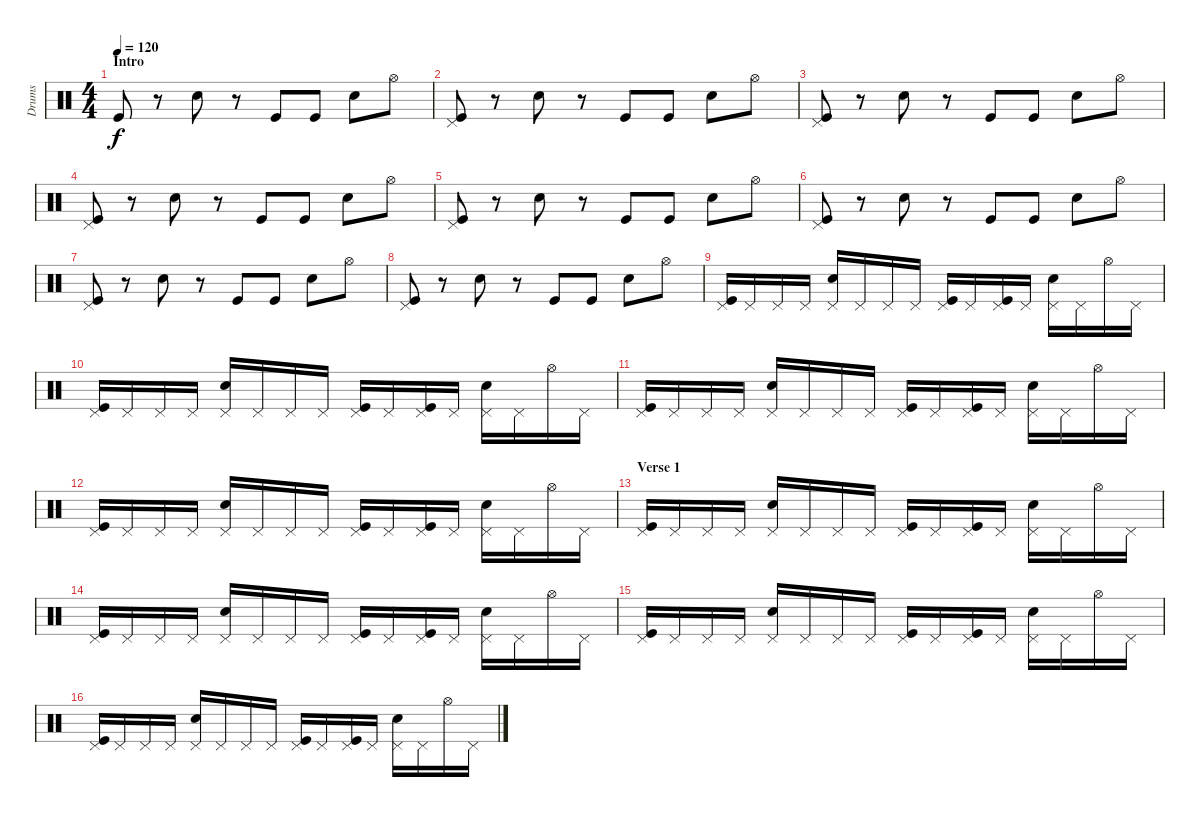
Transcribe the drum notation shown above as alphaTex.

\track ("Drums" "Drums") {instrument percussion}
\staff {score}
\articulation defaults
\ts (4 4)
\section ("" "Intro")
\tempo 120
\clef neutral
\ks c "Kick (hit)".8{dy f}
r.8 "Snare (hit) 2".8 r.8 "Kick (hit)".8 "Kick (hit)".8 "Snare (hit) 2".8 "Hi-Hat (open)".8 |
("Kick (hit)" "Pedal Hi-Hat (hit)").8 r.8 "Snare (hit) 2".8 r.8 "Kick (hit)".8 "Kick (hit)".8 "Snare (hit) 2".8 "Hi-Hat (open)".8 |
("Kick (hit)" "Pedal Hi-Hat (hit)").8 r.8 "Snare (hit) 2".8 r.8 "Kick (hit)".8 "Kick (hit)".8 "Snare (hit) 2".8 "Hi-Hat (open)".8 |
("Kick (hit)" "Pedal Hi-Hat (hit)").8 r.8 "Snare (hit) 2".8 r.8 "Kick (hit)".8 "Kick (hit)".8 "Snare (hit) 2".8 "Hi-Hat (open)".8 |
("Kick (hit)" "Pedal Hi-Hat (hit)").8 r.8 "Snare (hit) 2".8 r.8 "Kick (hit)".8 "Kick (hit)".8 "Snare (hit) 2".8 "Hi-Hat (open)".8 |
("Kick (hit)" "Pedal Hi-Hat (hit)").8 r.8 "Snare (hit) 2".8 r.8 "Kick (hit)".8 "Kick (hit)".8 "Snare (hit) 2".8 "Hi-Hat (open)".8 |
("Kick (hit)" "Pedal Hi-Hat (hit)").8 r.8 "Snare (hit) 2".8 r.8 "Kick (hit)".8 "Kick (hit)".8 "Snare (hit) 2".8 "Hi-Hat (open)".8 |
("Kick (hit)" "Pedal Hi-Hat (hit)").8 r.8 "Snare (hit) 2".8 r.8 "Kick (hit)".8 "Kick (hit)".8 "Snare (hit) 2".8 "Hi-Hat (open)".8 |
("Kick (hit)" "Pedal Hi-Hat (hit)").16 "Pedal Hi-Hat (hit)".16 "Pedal Hi-Hat (hit)".16 "Pedal Hi-Hat (hit)".16 ("Snare (hit) 2" "Pedal Hi-Hat (hit)").16 "Pedal Hi-Hat (hit)".16 "Pedal Hi-Hat (hit)".16 "Pedal Hi-Hat (hit)".16 ("Kick (hit)" "Pedal Hi-Hat (hit)").16 "Pedal Hi-Hat (hit)".16 ("Kick (hit)" "Pedal Hi-Hat (hit)").16 "Pedal Hi-Hat (hit)".16 ("Snare (hit) 2" "Pedal Hi-Hat (hit)").16 "Pedal Hi-Hat (hit)".16 "Hi-Hat (open)".16 "Pedal Hi-Hat (hit)".16 |
("Kick (hit)" "Pedal Hi-Hat (hit)").16 "Pedal Hi-Hat (hit)".16 "Pedal Hi-Hat (hit)".16 "Pedal Hi-Hat (hit)".16 ("Snare (hit) 2" "Pedal Hi-Hat (hit)").16 "Pedal Hi-Hat (hit)".16 "Pedal Hi-Hat (hit)".16 "Pedal Hi-Hat (hit)".16 ("Kick (hit)" "Pedal Hi-Hat (hit)").16 "Pedal Hi-Hat (hit)".16 ("Kick (hit)" "Pedal Hi-Hat (hit)").16 "Pedal Hi-Hat (hit)".16 ("Snare (hit) 2" "Pedal Hi-Hat (hit)").16 "Pedal Hi-Hat (hit)".16 "Hi-Hat (open)".16 "Pedal Hi-Hat (hit)".16 |
("Kick (hit)" "Pedal Hi-Hat (hit)").16 "Pedal Hi-Hat (hit)".16 "Pedal Hi-Hat (hit)".16 "Pedal Hi-Hat (hit)".16 ("Snare (hit) 2" "Pedal Hi-Hat (hit)").16 "Pedal Hi-Hat (hit)".16 "Pedal Hi-Hat (hit)".16 "Pedal Hi-Hat (hit)".16 ("Kick (hit)" "Pedal Hi-Hat (hit)").16 "Pedal Hi-Hat (hit)".16 ("Kick (hit)" "Pedal Hi-Hat (hit)").16 "Pedal Hi-Hat (hit)".16 ("Snare (hit) 2" "Pedal Hi-Hat (hit)").16 "Pedal Hi-Hat (hit)".16 "Hi-Hat (open)".16 "Pedal Hi-Hat (hit)".16 |
("Kick (hit)" "Pedal Hi-Hat (hit)").16 "Pedal Hi-Hat (hit)".16 "Pedal Hi-Hat (hit)".16 "Pedal Hi-Hat (hit)".16 ("Snare (hit) 2" "Pedal Hi-Hat (hit)").16 "Pedal Hi-Hat (hit)".16 "Pedal Hi-Hat (hit)".16 "Pedal Hi-Hat (hit)".16 ("Kick (hit)" "Pedal Hi-Hat (hit)").16 "Pedal Hi-Hat (hit)".16 ("Kick (hit)" "Pedal Hi-Hat (hit)").16 "Pedal Hi-Hat (hit)".16 ("Snare (hit) 2" "Pedal Hi-Hat (hit)").16 "Pedal Hi-Hat (hit)".16 "Hi-Hat (open)".16 "Pedal Hi-Hat (hit)".16 |
\section ("" "Verse 1")
("Kick (hit)" "Pedal Hi-Hat (hit)").16 "Pedal Hi-Hat (hit)".16 "Pedal Hi-Hat (hit)".16 "Pedal Hi-Hat (hit)".16 ("Snare (hit) 2" "Pedal Hi-Hat (hit)").16 "Pedal Hi-Hat (hit)".16 "Pedal Hi-Hat (hit)".16 "Pedal Hi-Hat (hit)".16 ("Kick (hit)" "Pedal Hi-Hat (hit)").16 "Pedal Hi-Hat (hit)".16 ("Kick (hit)" "Pedal Hi-Hat (hit)").16 "Pedal Hi-Hat (hit)".16 ("Snare (hit) 2" "Pedal Hi-Hat (hit)").16 "Pedal Hi-Hat (hit)".16 "Hi-Hat (open)".16 "Pedal Hi-Hat (hit)".16 |
("Kick (hit)" "Pedal Hi-Hat (hit)").16 "Pedal Hi-Hat (hit)".16 "Pedal Hi-Hat (hit)".16 "Pedal Hi-Hat (hit)".16 ("Snare (hit) 2" "Pedal Hi-Hat (hit)").16 "Pedal Hi-Hat (hit)".16 "Pedal Hi-Hat (hit)".16 "Pedal Hi-Hat (hit)".16 ("Kick (hit)" "Pedal Hi-Hat (hit)").16 "Pedal Hi-Hat (hit)".16 ("Kick (hit)" "Pedal Hi-Hat (hit)").16 "Pedal Hi-Hat (hit)".16 ("Snare (hit) 2" "Pedal Hi-Hat (hit)").16 "Pedal Hi-Hat (hit)".16 "Hi-Hat (open)".16 "Pedal Hi-Hat (hit)".16 |
("Kick (hit)" "Pedal Hi-Hat (hit)").16 "Pedal Hi-Hat (hit)".16 "Pedal Hi-Hat (hit)".16 "Pedal Hi-Hat (hit)".16 ("Snare (hit) 2" "Pedal Hi-Hat (hit)").16 "Pedal Hi-Hat (hit)".16 "Pedal Hi-Hat (hit)".16 "Pedal Hi-Hat (hit)".16 ("Kick (hit)" "Pedal Hi-Hat (hit)").16 "Pedal Hi-Hat (hit)".16 ("Kick (hit)" "Pedal Hi-Hat (hit)").16 "Pedal Hi-Hat (hit)".16 ("Snare (hit) 2" "Pedal Hi-Hat (hit)").16 "Pedal Hi-Hat (hit)".16 "Hi-Hat (open)".16 "Pedal Hi-Hat (hit)".16 |
("Kick (hit)" "Pedal Hi-Hat (hit)").16 "Pedal Hi-Hat (hit)".16 "Pedal Hi-Hat (hit)".16 "Pedal Hi-Hat (hit)".16 ("Snare (hit) 2" "Pedal Hi-Hat (hit)").16 "Pedal Hi-Hat (hit)".16 "Pedal Hi-Hat (hit)".16 "Pedal Hi-Hat (hit)".16 ("Kick (hit)" "Pedal Hi-Hat (hit)").16 "Pedal Hi-Hat (hit)".16 ("Kick (hit)" "Pedal Hi-Hat (hit)").16 "Pedal Hi-Hat (hit)".16 ("Snare (hit) 2" "Pedal Hi-Hat (hit)").16 "Pedal Hi-Hat (hit)".16 "Hi-Hat (open)".16 "Pedal Hi-Hat (hit)".16
